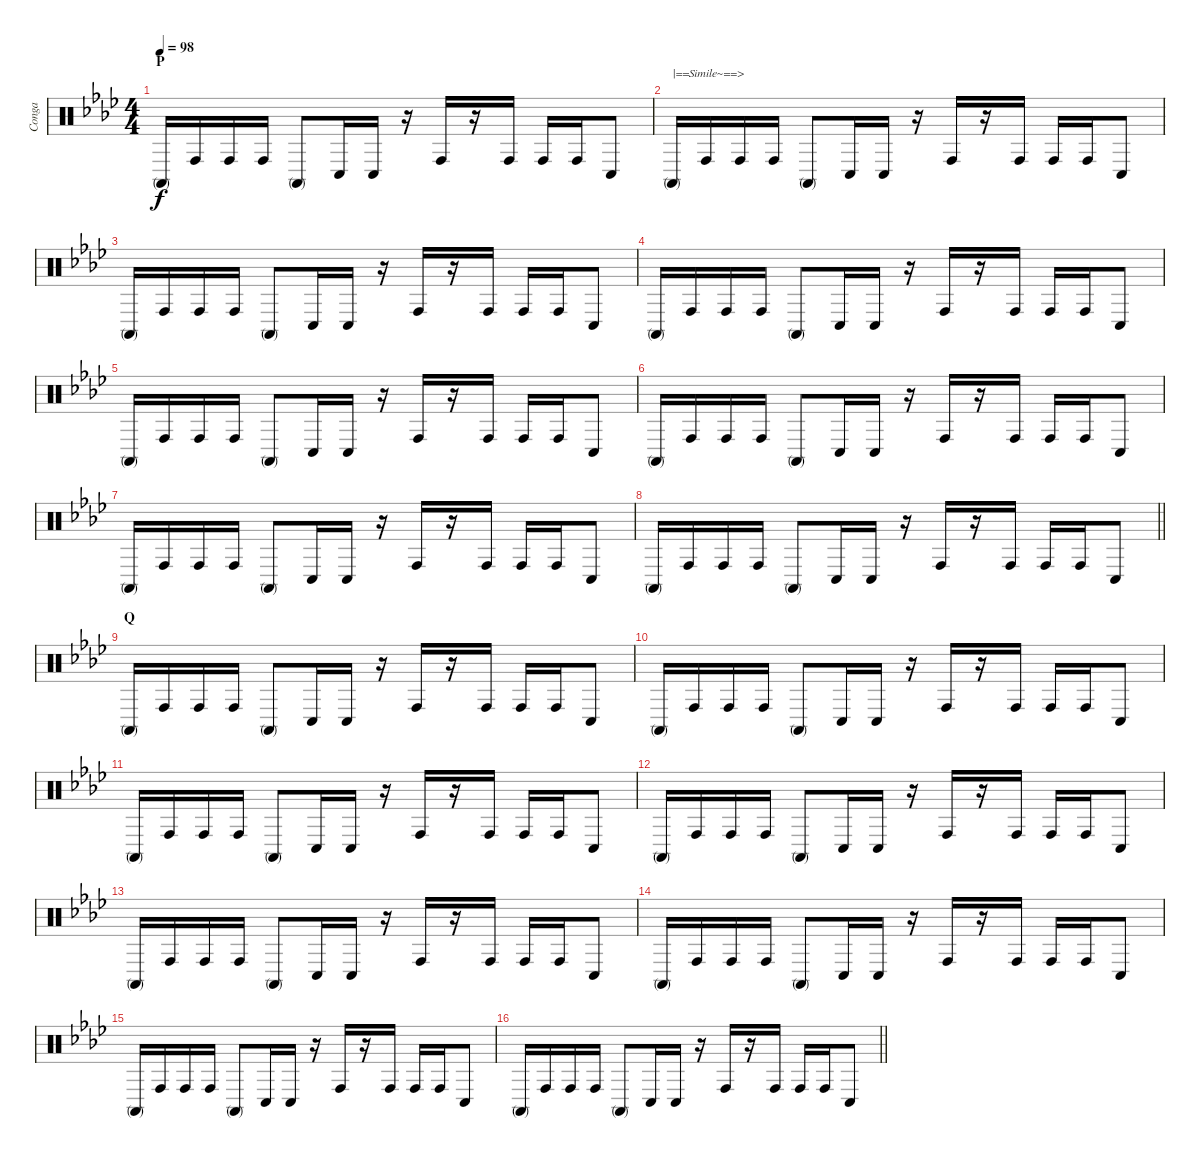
\track ("Conga" "Conga") {instrument percussion}
\staff {score}
\articulation defaults
\ts (4 4)
\section ("" "P")
\tempo 98
\clef neutral
\ks ab "Conga high (mute)".16{dy f} "Conga high (hit)".16 "Conga high (hit)".16 "Conga high (hit)".16 "Conga high (mute)".8 "Conga low (hit)".16 "Conga low (hit)".16
r.16 "Conga high (hit)".16 r.16 "Conga high (hit)".16 "Conga high (hit)".16 "Conga high (hit)".16 "Conga low (hit)".8 |
"Conga high (mute)".16{txt "|==Simile~==>"} "Conga high (hit)".16 "Conga high (hit)".16 "Conga high (hit)".16 "Conga high (mute)".8 "Conga low (hit)".16 "Conga low (hit)".16 r.16 "Conga high (hit)".16 r.16 "Conga high (hit)".16 "Conga high (hit)".16 "Conga high (hit)".16 "Conga low (hit)".8 |
"Conga high (mute)".16 "Conga high (hit)".16 "Conga high (hit)".16 "Conga high (hit)".16 "Conga high (mute)".8 "Conga low (hit)".16 "Conga low (hit)".16 r.16 "Conga high (hit)".16 r.16 "Conga high (hit)".16 "Conga high (hit)".16 "Conga high (hit)".16 "Conga low (hit)".8 |
"Conga high (mute)".16 "Conga high (hit)".16 "Conga high (hit)".16 "Conga high (hit)".16 "Conga high (mute)".8 "Conga low (hit)".16 "Conga low (hit)".16 r.16 "Conga high (hit)".16 r.16 "Conga high (hit)".16 "Conga high (hit)".16 "Conga high (hit)".16 "Conga low (hit)".8 |
"Conga high (mute)".16 "Conga high (hit)".16 "Conga high (hit)".16 "Conga high (hit)".16 "Conga high (mute)".8 "Conga low (hit)".16 "Conga low (hit)".16 r.16 "Conga high (hit)".16 r.16 "Conga high (hit)".16 "Conga high (hit)".16 "Conga high (hit)".16 "Conga low (hit)".8 |
"Conga high (mute)".16 "Conga high (hit)".16 "Conga high (hit)".16 "Conga high (hit)".16 "Conga high (mute)".8 "Conga low (hit)".16 "Conga low (hit)".16 r.16 "Conga high (hit)".16 r.16 "Conga high (hit)".16 "Conga high (hit)".16 "Conga high (hit)".16 "Conga low (hit)".8 |
"Conga high (mute)".16 "Conga high (hit)".16 "Conga high (hit)".16 "Conga high (hit)".16 "Conga high (mute)".8 "Conga low (hit)".16 "Conga low (hit)".16 r.16 "Conga high (hit)".16 r.16 "Conga high (hit)".16 "Conga high (hit)".16 "Conga high (hit)".16 "Conga low (hit)".8 |
\barLineRight lightlight "Conga high (mute)".16 "Conga high (hit)".16 "Conga high (hit)".16 "Conga high (hit)".16 "Conga high (mute)".8 "Conga low (hit)".16 "Conga low (hit)".16
r.16 "Conga high (hit)".16 r.16 "Conga high (hit)".16 "Conga high (hit)".16 "Conga high (hit)".16 "Conga low (hit)".8 |
\section ("" "Q")
"Conga high (mute)".16 "Conga high (hit)".16 "Conga high (hit)".16 "Conga high (hit)".16 "Conga high (mute)".8 "Conga low (hit)".16 "Conga low (hit)".16 r.16 "Conga high (hit)".16 r.16 "Conga high (hit)".16 "Conga high (hit)".16 "Conga high (hit)".16 "Conga low (hit)".8 |
"Conga high (mute)".16 "Conga high (hit)".16 "Conga high (hit)".16 "Conga high (hit)".16 "Conga high (mute)".8 "Conga low (hit)".16 "Conga low (hit)".16 r.16 "Conga high (hit)".16 r.16 "Conga high (hit)".16 "Conga high (hit)".16 "Conga high (hit)".16 "Conga low (hit)".8 |
"Conga high (mute)".16 "Conga high (hit)".16 "Conga high (hit)".16 "Conga high (hit)".16 "Conga high (mute)".8 "Conga low (hit)".16 "Conga low (hit)".16 r.16 "Conga high (hit)".16 r.16 "Conga high (hit)".16 "Conga high (hit)".16 "Conga high (hit)".16 "Conga low (hit)".8 |
"Conga high (mute)".16 "Conga high (hit)".16 "Conga high (hit)".16 "Conga high (hit)".16 "Conga high (mute)".8 "Conga low (hit)".16 "Conga low (hit)".16 r.16 "Conga high (hit)".16 r.16 "Conga high (hit)".16 "Conga high (hit)".16 "Conga high (hit)".16 "Conga low (hit)".8 |
"Conga high (mute)".16 "Conga high (hit)".16 "Conga high (hit)".16 "Conga high (hit)".16 "Conga high (mute)".8 "Conga low (hit)".16 "Conga low (hit)".16 r.16 "Conga high (hit)".16 r.16 "Conga high (hit)".16 "Conga high (hit)".16 "Conga high (hit)".16 "Conga low (hit)".8 |
"Conga high (mute)".16 "Conga high (hit)".16 "Conga high (hit)".16 "Conga high (hit)".16 "Conga high (mute)".8 "Conga low (hit)".16 "Conga low (hit)".16 r.16 "Conga high (hit)".16 r.16 "Conga high (hit)".16 "Conga high (hit)".16 "Conga high (hit)".16 "Conga low (hit)".8 |
"Conga high (mute)".16 "Conga high (hit)".16 "Conga high (hit)".16 "Conga high (hit)".16 "Conga high (mute)".8 "Conga low (hit)".16 "Conga low (hit)".16 r.16 "Conga high (hit)".16 r.16 "Conga high (hit)".16 "Conga high (hit)".16 "Conga high (hit)".16 "Conga low (hit)".8 |
\barLineRight lightlight "Conga high (mute)".16 "Conga high (hit)".16 "Conga high (hit)".16 "Conga high (hit)".16 "Conga high (mute)".8 "Conga low (hit)".16 "Conga low (hit)".16
r.16 "Conga high (hit)".16 r.16 "Conga high (hit)".16 "Conga high (hit)".16 "Conga high (hit)".16 "Conga low (hit)".8
